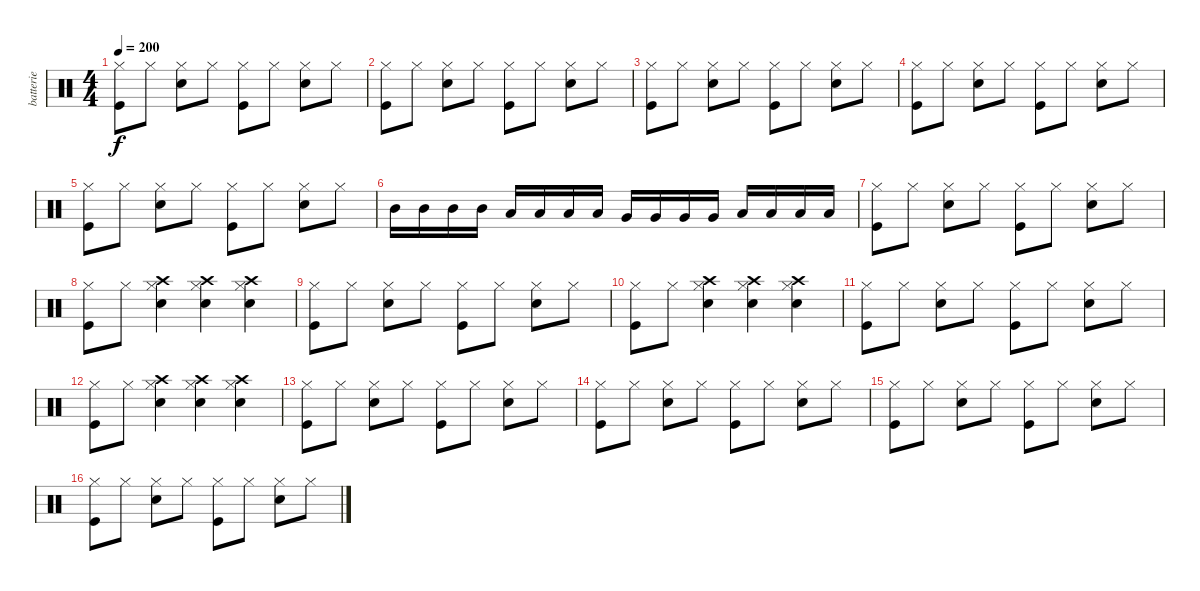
\track ("batterie" "batterie") {instrument percussion}
\staff {score}
\articulation defaults
\ts (4 4)
\tempo 200
\clef neutral
\ks c
("Hi-Hat (closed)" "Kick (hit)").8{dy f} "Hi-Hat (closed)".8 ("Hi-Hat (closed)" "Electric Snare (hit)").8 "Hi-Hat (closed)".8 ("Hi-Hat (closed)" "Kick (hit)").8 "Hi-Hat (closed)".8 ("Hi-Hat (closed)" "Electric Snare (hit)").8 "Hi-Hat (closed)".8 |
("Hi-Hat (closed)" "Kick (hit)").8 "Hi-Hat (closed)".8 ("Hi-Hat (closed)" "Electric Snare (hit)").8 "Hi-Hat (closed)".8 ("Hi-Hat (closed)" "Kick (hit)").8 "Hi-Hat (closed)".8 ("Hi-Hat (closed)" "Electric Snare (hit)").8 "Hi-Hat (closed)".8 |
("Hi-Hat (closed)" "Kick (hit)").8 "Hi-Hat (closed)".8 ("Hi-Hat (closed)" "Electric Snare (hit)").8 "Hi-Hat (closed)".8 ("Hi-Hat (closed)" "Kick (hit)").8 "Hi-Hat (closed)".8 ("Hi-Hat (closed)" "Electric Snare (hit)").8 "Hi-Hat (closed)".8 |
("Hi-Hat (closed)" "Kick (hit)").8 "Hi-Hat (closed)".8 ("Hi-Hat (closed)" "Electric Snare (hit)").8 "Hi-Hat (closed)".8 ("Hi-Hat (closed)" "Kick (hit)").8 "Hi-Hat (closed)".8 ("Hi-Hat (closed)" "Electric Snare (hit)").8 "Hi-Hat (closed)".8 |
("Hi-Hat (closed)" "Kick (hit)").8 "Hi-Hat (closed)".8 ("Hi-Hat (closed)" "Electric Snare (hit)").8 "Hi-Hat (closed)".8 ("Hi-Hat (closed)" "Kick (hit)").8 "Hi-Hat (closed)".8 ("Hi-Hat (closed)" "Electric Snare (hit)").8 "Hi-Hat (closed)".8 |
"Mid Tom (hit)".16 "Mid Tom (hit)".16 "Mid Tom (hit)".16 "Mid Tom (hit)".16 "Low Tom (hit)".16 "Low Tom (hit)".16 "Low Tom (hit)".16 "Low Tom (hit)".16 "Very Low Tom (hit)".16 "Very Low Tom (hit)".16 "Very Low Tom (hit)".16 "Very Low Tom (hit)".16 "Low Floor Tom (hit)".16 "Low Floor Tom (hit)".16 "Low Floor Tom (hit)".16 "Low Floor Tom (hit)".16 |
("Hi-Hat (closed)" "Kick (hit)").8 "Hi-Hat (closed)".8 ("Hi-Hat (closed)" "Electric Snare (hit)").8 "Hi-Hat (closed)".8 ("Hi-Hat (closed)" "Kick (hit)").8 "Hi-Hat (closed)".8 ("Hi-Hat (closed)" "Electric Snare (hit)").8 "Hi-Hat (closed)".8 |
("Hi-Hat (closed)" "Kick (hit)").8 "Hi-Hat (closed)".8 ("Hi-Hat (closed)" "Electric Snare (hit)" "Crash high (hit)").4 ("Hi-Hat (closed)" "Electric Snare (hit)" "Crash high (hit)").4 ("Hi-Hat (closed)" "Electric Snare (hit)" "Crash high (hit)").4 |
("Hi-Hat (closed)" "Kick (hit)").8 "Hi-Hat (closed)".8 ("Hi-Hat (closed)" "Electric Snare (hit)").8 "Hi-Hat (closed)".8 ("Hi-Hat (closed)" "Kick (hit)").8 "Hi-Hat (closed)".8 ("Hi-Hat (closed)" "Electric Snare (hit)").8 "Hi-Hat (closed)".8 |
("Hi-Hat (closed)" "Kick (hit)").8 "Hi-Hat (closed)".8 ("Hi-Hat (closed)" "Electric Snare (hit)" "Crash high (hit)").4 ("Hi-Hat (closed)" "Electric Snare (hit)" "Crash high (hit)").4 ("Hi-Hat (closed)" "Electric Snare (hit)" "Crash high (hit)").4 |
("Hi-Hat (closed)" "Kick (hit)").8 "Hi-Hat (closed)".8 ("Hi-Hat (closed)" "Electric Snare (hit)").8 "Hi-Hat (closed)".8 ("Hi-Hat (closed)" "Kick (hit)").8 "Hi-Hat (closed)".8 ("Hi-Hat (closed)" "Electric Snare (hit)").8 "Hi-Hat (closed)".8 |
("Hi-Hat (closed)" "Kick (hit)").8 "Hi-Hat (closed)".8 ("Hi-Hat (closed)" "Electric Snare (hit)" "Crash high (hit)").4 ("Hi-Hat (closed)" "Electric Snare (hit)" "Crash high (hit)").4 ("Hi-Hat (closed)" "Electric Snare (hit)" "Crash high (hit)").4 |
("Hi-Hat (closed)" "Kick (hit)").8 "Hi-Hat (closed)".8 ("Hi-Hat (closed)" "Electric Snare (hit)").8 "Hi-Hat (closed)".8 ("Hi-Hat (closed)" "Kick (hit)").8 "Hi-Hat (closed)".8 ("Hi-Hat (closed)" "Electric Snare (hit)").8 "Hi-Hat (closed)".8 |
("Hi-Hat (closed)" "Kick (hit)").8 "Hi-Hat (closed)".8 ("Hi-Hat (closed)" "Electric Snare (hit)").8 "Hi-Hat (closed)".8 ("Hi-Hat (closed)" "Kick (hit)").8 "Hi-Hat (closed)".8 ("Hi-Hat (closed)" "Electric Snare (hit)").8 "Hi-Hat (closed)".8 |
("Hi-Hat (closed)" "Kick (hit)").8 "Hi-Hat (closed)".8 ("Hi-Hat (closed)" "Electric Snare (hit)").8 "Hi-Hat (closed)".8 ("Hi-Hat (closed)" "Kick (hit)").8 "Hi-Hat (closed)".8 ("Hi-Hat (closed)" "Electric Snare (hit)").8 "Hi-Hat (closed)".8 |
("Hi-Hat (closed)" "Kick (hit)").8 "Hi-Hat (closed)".8 ("Hi-Hat (closed)" "Electric Snare (hit)").8 "Hi-Hat (closed)".8 ("Hi-Hat (closed)" "Kick (hit)").8 "Hi-Hat (closed)".8 ("Hi-Hat (closed)" "Electric Snare (hit)").8 "Hi-Hat (closed)".8
